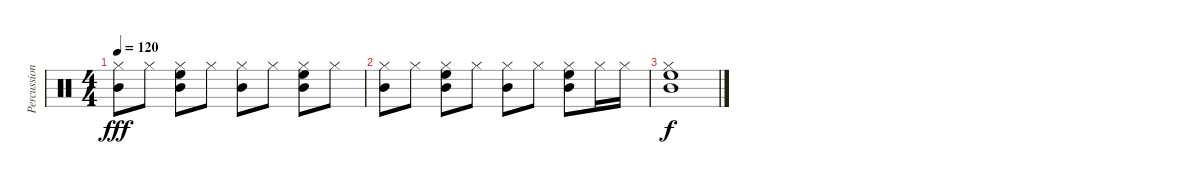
\track ("Percussion" "Percussion") {instrument percussion}
\staff {score}
\articulation defaults
\ts (4 4)
\tempo 120
\clef neutral
\ks c
("Hi-Hat (closed)" "Mid Tom (hit)").8{dy fff} "Hi-Hat (closed)".8 ("Hi-Hat (closed)" "Mid Tom (hit)" "High Floor Tom (hit)").8 "Hi-Hat (closed)".8 ("Hi-Hat (closed)" "Mid Tom (hit)").8 "Hi-Hat (closed)".8 ("Hi-Hat (closed)" "Mid Tom (hit)" "High Floor Tom (hit)").8 "Hi-Hat (closed)".8 |
("Hi-Hat (closed)" "Mid Tom (hit)").8 "Hi-Hat (closed)".8 ("Hi-Hat (closed)" "Mid Tom (hit)" "High Floor Tom (hit)").8 "Hi-Hat (closed)".8 ("Hi-Hat (closed)" "Mid Tom (hit)").8 "Hi-Hat (closed)".8 ("Hi-Hat (closed)" "Mid Tom (hit)" "High Floor Tom (hit)").8 "Hi-Hat (closed)".16 "Hi-Hat (closed)".16 |
("Hi-Hat (closed)" "Mid Tom (hit)" "High Floor Tom (hit)").1{dy f}
